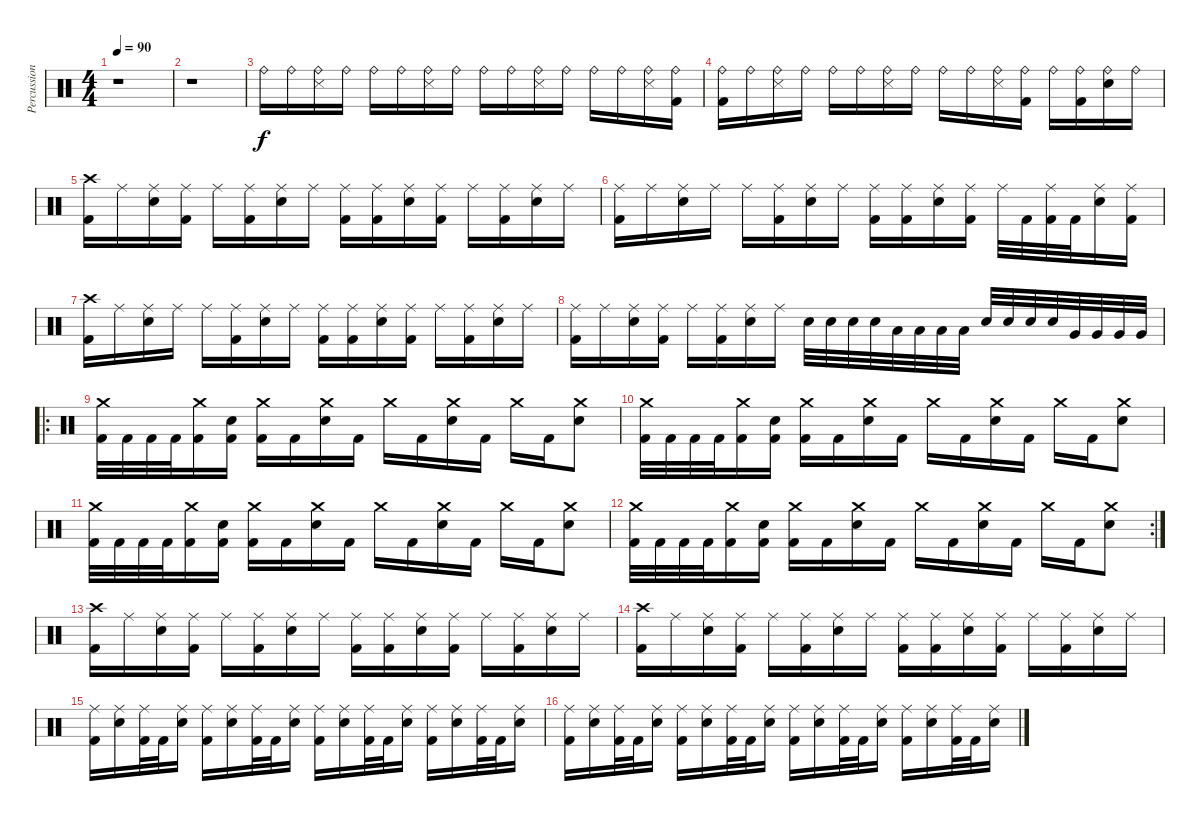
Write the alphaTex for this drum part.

\track ("Percussion" "Percussion") {instrument percussion}
\staff {score}
\articulation defaults
\ts (4 4)
\tempo 90
\clef neutral
\ks c
r.1{dy f} |
r.1 |
"Ride (bell)".16 "Ride (bell)".16 ("Ride (bell)" "Snare (side stick) 3").16 "Ride (bell)".16 "Ride (bell)".16 "Ride (bell)".16 ("Ride (bell)" "Snare (side stick) 3").16 "Ride (bell)".16 "Ride (bell)".16 "Ride (bell)".16 ("Ride (bell)" "Snare (side stick) 3").16 "Ride (bell)".16 "Ride (bell)".16 "Ride (bell)".16 ("Ride (bell)" "Snare (side stick) 3").16 ("Ride (bell)" "Kick (hit) 2").16 |
("Ride (bell)" "Kick (hit) 2").16 "Ride (bell)".16 ("Ride (bell)" "Snare (side stick) 3").16 "Ride (bell)".16 "Ride (bell)".16 "Ride (bell)".16 ("Ride (bell)" "Snare (side stick) 3").16 "Ride (bell)".16 "Ride (bell)".16 "Ride (bell)".16 ("Ride (bell)" "Snare (side stick) 3").16 ("Ride (bell)" "Kick (hit) 2").16 "Ride (bell)".16 ("Ride (bell)" "Kick (hit) 2").16 ("Ride (bell)" "Electric Snare (hit)").16 "Ride (bell)".16 |
("Crash high (hit)" "Kick (hit) 2").16 "Ride (middle)".16 ("Ride (middle)" "Electric Snare (hit)").16 ("Ride (middle)" "Kick (hit) 2").16 "Ride (middle)".16 ("Ride (middle)" "Kick (hit) 2").16 ("Ride (middle)" "Electric Snare (hit)").16 "Ride (middle)".16 ("Ride (middle)" "Kick (hit) 2").16 ("Ride (middle)" "Kick (hit) 2").16 ("Ride (middle)" "Electric Snare (hit)").16 ("Ride (middle)" "Kick (hit) 2").16 "Ride (middle)".16 ("Ride (middle)" "Kick (hit) 2").16 ("Ride (middle)" "Electric Snare (hit)").16 "Ride (middle)".16 |
("Ride (middle)" "Kick (hit) 2").16 "Ride (middle)".16 ("Ride (middle)" "Electric Snare (hit)").16 "Ride (middle)".16 "Ride (middle)".16 ("Ride (middle)" "Kick (hit) 2").16 ("Ride (middle)" "Electric Snare (hit)").16 "Ride (middle)".16 ("Ride (middle)" "Kick (hit) 2").16 ("Ride (middle)" "Kick (hit) 2").16 ("Ride (middle)" "Electric Snare (hit)").16 ("Ride (middle)" "Kick (hit) 2").16 "Ride (middle)".32 "Kick (hit) 2".32 ("Ride (middle)" "Kick (hit) 2").32 "Kick (hit) 2".32 ("Ride (middle)" "Electric Snare (hit)").16 ("Ride (middle)" "Kick (hit) 2").16 |
("Crash high (hit)" "Kick (hit) 2").16 "Ride (middle)".16 ("Ride (middle)" "Electric Snare (hit)").16 "Ride (middle)".16 "Ride (middle)".16 ("Ride (middle)" "Kick (hit) 2").16 ("Ride (middle)" "Electric Snare (hit)").16 "Ride (middle)".16 ("Ride (middle)" "Kick (hit) 2").16 ("Ride (middle)" "Kick (hit) 2").16 ("Ride (middle)" "Electric Snare (hit)").16 ("Ride (middle)" "Kick (hit) 2").16 "Ride (middle)".16 ("Ride (middle)" "Kick (hit) 2").16 ("Ride (middle)" "Electric Snare (hit)").16 "Ride (middle)".16 |
("Ride (middle)" "Kick (hit) 2").16 "Ride (middle)".16 ("Ride (middle)" "Electric Snare (hit)").16 ("Ride (middle)" "Kick (hit) 2").16 "Ride (middle)".16 ("Ride (middle)" "Kick (hit) 2").16 ("Ride (middle)" "Electric Snare (hit)").16 "Ride (middle)".16 "Electric Snare (hit)".32 "Electric Snare (hit)".32 "Electric Snare (hit)".32 "Electric Snare (hit)".32 "Low Tom (hit)".32 "Low Tom (hit)".32 "Low Tom (hit)".32 "Low Tom (hit)".32 "Electric Snare (hit)".32 "Electric Snare (hit)".32 "Electric Snare (hit)".32 "Electric Snare (hit)".32 "Very Low Tom (hit)".32 "Very Low Tom (hit)".32 "Very Low Tom (hit)".32 "Very Low Tom (hit)".32 |
\ro
("Crash medium (hit)" "Kick (hit) 2").32 "Kick (hit) 2".32 "Kick (hit) 2".32 "Kick (hit) 2".32 ("Crash medium (hit)" "Kick (hit) 2").16 ("Electric Snare (hit)" "Kick (hit) 2").16 ("Crash medium (hit)" "Kick (hit) 2").16 "Kick (hit) 2".16 ("Crash medium (hit)" "Electric Snare (hit)").16 "Kick (hit) 2".16 "Crash medium (hit)".16 "Kick (hit) 2".16 ("Crash medium (hit)" "Electric Snare (hit)").16 "Kick (hit) 2".16 "Crash medium (hit)".16 "Kick (hit) 2".16 ("Crash medium (hit)" "Electric Snare (hit)").8 |
("Crash medium (hit)" "Kick (hit) 2").32 "Kick (hit) 2".32 "Kick (hit) 2".32 "Kick (hit) 2".32 ("Crash medium (hit)" "Kick (hit) 2").16 ("Electric Snare (hit)" "Kick (hit) 2").16 ("Crash medium (hit)" "Kick (hit) 2").16 "Kick (hit) 2".16 ("Crash medium (hit)" "Electric Snare (hit)").16 "Kick (hit) 2".16 "Crash medium (hit)".16 "Kick (hit) 2".16 ("Crash medium (hit)" "Electric Snare (hit)").16 "Kick (hit) 2".16 "Crash medium (hit)".16 "Kick (hit) 2".16 ("Crash medium (hit)" "Electric Snare (hit)").8 |
("Crash medium (hit)" "Kick (hit) 2").32 "Kick (hit) 2".32 "Kick (hit) 2".32 "Kick (hit) 2".32 ("Crash medium (hit)" "Kick (hit) 2").16 ("Electric Snare (hit)" "Kick (hit) 2").16 ("Crash medium (hit)" "Kick (hit) 2").16 "Kick (hit) 2".16 ("Crash medium (hit)" "Electric Snare (hit)").16 "Kick (hit) 2".16 "Crash medium (hit)".16 "Kick (hit) 2".16 ("Crash medium (hit)" "Electric Snare (hit)").16 "Kick (hit) 2".16 "Crash medium (hit)".16 "Kick (hit) 2".16 ("Crash medium (hit)" "Electric Snare (hit)").8 |
\rc 2
("Crash medium (hit)" "Kick (hit) 2").32 "Kick (hit) 2".32 "Kick (hit) 2".32 "Kick (hit) 2".32 ("Crash medium (hit)" "Kick (hit) 2").16 ("Electric Snare (hit)" "Kick (hit) 2").16 ("Crash medium (hit)" "Kick (hit) 2").16 "Kick (hit) 2".16 ("Crash medium (hit)" "Electric Snare (hit)").16 "Kick (hit) 2".16 "Crash medium (hit)".16 "Kick (hit) 2".16 ("Crash medium (hit)" "Electric Snare (hit)").16 "Kick (hit) 2".16 "Crash medium (hit)".16 "Kick (hit) 2".16 ("Crash medium (hit)" "Electric Snare (hit)").8 |
("Crash high (hit)" "Kick (hit) 2").16 "Ride (middle)".16 ("Ride (middle)" "Electric Snare (hit)").16 ("Ride (middle)" "Kick (hit) 2").16 "Ride (middle)".16 ("Ride (middle)" "Kick (hit) 2").16 ("Ride (middle)" "Electric Snare (hit)").16 "Ride (middle)".16 ("Ride (middle)" "Kick (hit) 2").16 ("Ride (middle)" "Kick (hit) 2").16 ("Ride (middle)" "Electric Snare (hit)").16 ("Ride (middle)" "Kick (hit) 2").16 "Ride (middle)".16 ("Ride (middle)" "Kick (hit) 2").16 ("Ride (middle)" "Electric Snare (hit)").16 "Ride (middle)".16 |
("Crash high (hit)" "Kick (hit) 2").16 "Ride (middle)".16 ("Ride (middle)" "Electric Snare (hit)").16 ("Ride (middle)" "Kick (hit) 2").16 "Ride (middle)".16 ("Ride (middle)" "Kick (hit) 2").16 ("Ride (middle)" "Electric Snare (hit)").16 "Ride (middle)".16 ("Ride (middle)" "Kick (hit) 2").16 ("Ride (middle)" "Kick (hit) 2").16 ("Ride (middle)" "Electric Snare (hit)").16 ("Ride (middle)" "Kick (hit) 2").16 "Ride (middle)".16 ("Ride (middle)" "Kick (hit) 2").16 ("Ride (middle)" "Electric Snare (hit)").16 "Ride (middle)".16 |
("Ride (middle)" "Kick (hit) 2").16 ("Ride (middle)" "Electric Snare (hit)").16 ("Ride (middle)" "Kick (hit) 2").32 "Kick (hit) 2".32 ("Ride (middle)" "Electric Snare (hit)").16 ("Ride (middle)" "Kick (hit) 2").16 ("Ride (middle)" "Electric Snare (hit)").16 ("Ride (middle)" "Kick (hit) 2").32 "Kick (hit) 2".32 ("Ride (middle)" "Electric Snare (hit)").16 ("Ride (middle)" "Kick (hit) 2").16 ("Ride (middle)" "Electric Snare (hit)").16 ("Ride (middle)" "Kick (hit) 2").32 "Kick (hit) 2".32 ("Ride (middle)" "Electric Snare (hit)").16 ("Ride (middle)" "Kick (hit) 2").16 ("Ride (middle)" "Electric Snare (hit)").16 ("Ride (middle)" "Kick (hit) 2").32 "Kick (hit) 2".32 ("Ride (middle)" "Electric Snare (hit)").16 |
("Ride (middle)" "Kick (hit) 2").16 ("Ride (middle)" "Electric Snare (hit)").16 ("Ride (middle)" "Kick (hit) 2").32 "Kick (hit) 2".32 ("Ride (middle)" "Electric Snare (hit)").16 ("Ride (middle)" "Kick (hit) 2").16 ("Ride (middle)" "Electric Snare (hit)").16 ("Ride (middle)" "Kick (hit) 2").32 "Kick (hit) 2".32 ("Ride (middle)" "Electric Snare (hit)").16 ("Ride (middle)" "Kick (hit) 2").16 ("Ride (middle)" "Electric Snare (hit)").16 ("Ride (middle)" "Kick (hit) 2").32 "Kick (hit) 2".32 ("Ride (middle)" "Electric Snare (hit)").16 ("Ride (middle)" "Kick (hit) 2").16 ("Ride (middle)" "Electric Snare (hit)").16 ("Ride (middle)" "Kick (hit) 2").32 "Kick (hit) 2".32 ("Ride (middle)" "Electric Snare (hit)").16
